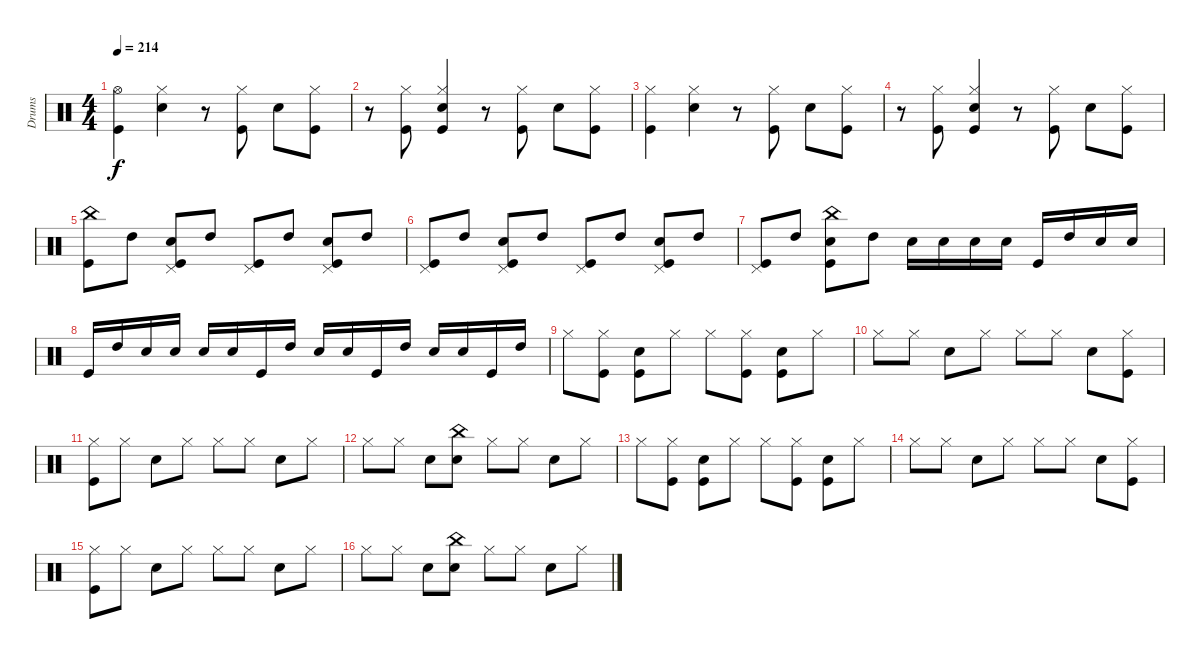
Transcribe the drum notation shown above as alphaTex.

\track ("Drums" "Drums") {instrument percussion}
\staff {score}
\articulation defaults
\ts (4 4)
\tempo 214
\clef neutral
\ks c
("Hi-Hat (open)" "Kick (hit)").4{dy f} ("Hi-Hat (closed)" "Snare (hit) 2").4 r.8 ("Hi-Hat (closed)" "Kick (hit)").8 "Snare (hit) 2".8 ("Hi-Hat (closed)" "Kick (hit)").8 |
r.8 ("Hi-Hat (closed)" "Kick (hit)").8 ("Hi-Hat (closed)" "Snare (hit) 2" "Kick (hit)").4 r.8 ("Hi-Hat (closed)" "Kick (hit)").8 "Snare (hit) 2".8 ("Hi-Hat (closed)" "Kick (hit)").8 |
("Hi-Hat (closed)" "Kick (hit)").4 ("Hi-Hat (closed)" "Snare (hit) 2").4 r.8 ("Hi-Hat (closed)" "Kick (hit)").8 "Snare (hit) 2".8 ("Hi-Hat (closed)" "Kick (hit)").8 |
r.8 ("Hi-Hat (closed)" "Kick (hit)").8 ("Hi-Hat (closed)" "Snare (hit) 2" "Kick (hit)").4 r.8 ("Hi-Hat (closed)" "Kick (hit)").8 "Snare (hit) 2".8 ("Hi-Hat (closed)" "Kick (hit)").8 |
("China (hit)" "Kick (hit)").8 "High Tom (hit)".8 ("Pedal Hi-Hat (hit)" "Snare (hit) 2" "Kick (hit)").8 "High Tom (hit)".8 ("Pedal Hi-Hat (hit)" "Kick (hit)").8 "High Tom (hit)".8 ("Pedal Hi-Hat (hit)" "Snare (hit) 2" "Kick (hit)").8 "High Tom (hit)".8 |
("Pedal Hi-Hat (hit)" "Kick (hit)").8 "High Tom (hit)".8 ("Pedal Hi-Hat (hit)" "Snare (hit) 2" "Kick (hit)").8 "High Tom (hit)".8 ("Pedal Hi-Hat (hit)" "Kick (hit)").8 "High Tom (hit)".8 ("Pedal Hi-Hat (hit)" "Snare (hit) 2" "Kick (hit)").8 "High Tom (hit)".8 |
("Pedal Hi-Hat (hit)" "Kick (hit)").8 "High Tom (hit)".8 ("China (hit)" "Snare (hit) 2" "Kick (hit)").8 "High Tom (hit)".8 "Snare (hit) 2".16 "Snare (hit) 2".16 "Snare (hit) 2".16 "Snare (hit) 2".16 "Kick (hit)".16 "High Tom (hit)".16 "Snare (hit) 2".16 "Snare (hit) 2".16 |
"Kick (hit)".16 "High Tom (hit)".16 "Snare (hit) 2".16 "Snare (hit) 2".16 "Snare (hit) 2".16 "Snare (hit) 2".16 "Kick (hit)".16 "High Tom (hit)".16 "Snare (hit) 2".16 "Snare (hit) 2".16 "Kick (hit)".16 "High Tom (hit)".16 "Snare (hit) 2".16 "Snare (hit) 2".16 "Kick (hit)".16 "High Tom (hit)".16 |
"Hi-Hat (closed)".8 ("Hi-Hat (closed)" "Kick (hit)").8 ("Snare (hit) 2" "Kick (hit)").8 "Hi-Hat (closed)".8 "Hi-Hat (closed)".8 ("Hi-Hat (closed)" "Kick (hit)").8 ("Snare (hit) 2" "Kick (hit)").8 "Hi-Hat (closed)".8 |
"Hi-Hat (closed)".8 "Hi-Hat (closed)".8 "Snare (hit) 2".8 "Hi-Hat (closed)".8 "Hi-Hat (closed)".8 "Hi-Hat (closed)".8 "Snare (hit) 2".8 ("Hi-Hat (closed)" "Kick (hit)").8 |
("Hi-Hat (closed)" "Kick (hit)").8 "Hi-Hat (closed)".8 "Snare (hit) 2".8 "Hi-Hat (closed)".8 "Hi-Hat (closed)".8 "Hi-Hat (closed)".8 "Snare (hit) 2".8 "Hi-Hat (closed)".8 |
"Hi-Hat (closed)".8 "Hi-Hat (closed)".8 "Snare (hit) 2".8 ("China (hit)" "Snare (hit) 2").8 "Hi-Hat (closed)".8 "Hi-Hat (closed)".8 "Snare (hit) 2".8 "Hi-Hat (closed)".8 |
"Hi-Hat (closed)".8 ("Hi-Hat (closed)" "Kick (hit)").8 ("Snare (hit) 2" "Kick (hit)").8 "Hi-Hat (closed)".8 "Hi-Hat (closed)".8 ("Hi-Hat (closed)" "Kick (hit)").8 ("Snare (hit) 2" "Kick (hit)").8 "Hi-Hat (closed)".8 |
"Hi-Hat (closed)".8 "Hi-Hat (closed)".8 "Snare (hit) 2".8 "Hi-Hat (closed)".8 "Hi-Hat (closed)".8 "Hi-Hat (closed)".8 "Snare (hit) 2".8 ("Hi-Hat (closed)" "Kick (hit)").8 |
("Hi-Hat (closed)" "Kick (hit)").8 "Hi-Hat (closed)".8 "Snare (hit) 2".8 "Hi-Hat (closed)".8 "Hi-Hat (closed)".8 "Hi-Hat (closed)".8 "Snare (hit) 2".8 "Hi-Hat (closed)".8 |
"Hi-Hat (closed)".8 "Hi-Hat (closed)".8 "Snare (hit) 2".8 ("China (hit)" "Snare (hit) 2").8 "Hi-Hat (closed)".8 "Hi-Hat (closed)".8 "Snare (hit) 2".8 "Hi-Hat (closed)".8
